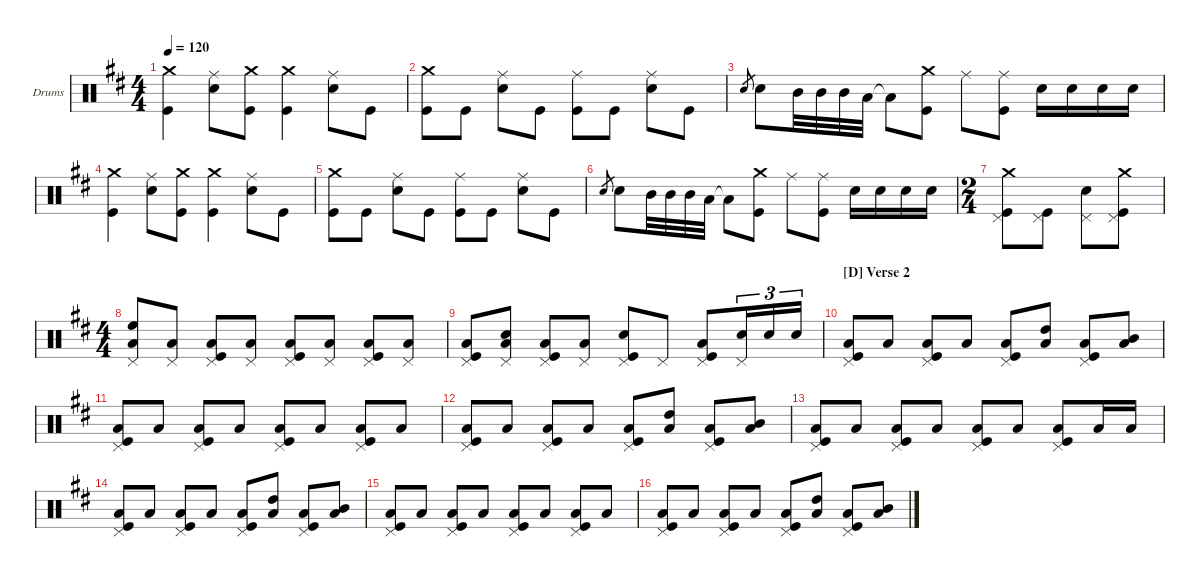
\hideDynamics
\bracketExtendMode nobrackets
\firstSystemTrackNameOrientation horizontal
\otherSystemsTrackNameOrientation horizontal
\track ("Drums" "Drums") {instrument percussion}
\staff {score}
\articulation defaults
\ts (4 4)
\tempo 120
\clef neutral
\ks bminor
("Crash medium (hit)" "Kick (hit)").4{dy f} ("Ride (middle)" "Snare (hit) 2").8 ("Crash medium (hit)" "Kick (hit)").8 ("Crash medium (hit)" "Kick (hit)").4 ("Ride (middle)" "Snare (hit) 2").8 "Kick (hit)".8 |
("Crash medium (hit)" "Kick (hit)").8 "Kick (hit)".8 ("Ride (middle)" "Snare (hit) 2").8 "Kick (hit)".8 ("Ride (middle)" "Kick (hit)").8 "Kick (hit)".8 ("Ride (middle)" "Snare (hit) 2").8 "Kick (hit)".8 |
"Snare (hit) 2".8{gr} "Snare (hit) 2".8 "Mid Tom (hit)".32 "Mid Tom (hit)".32 "Mid Tom (hit)".32 "Low Tom (hit)".32 "Low Tom (hit)"{t}.8 ("Kick (hit)" "Crash medium (hit)").8 "Ride (middle)".8 ("Ride (middle)" "Kick (hit)").8 "Snare (hit) 2".16 "Snare (hit) 2".16 "Snare (hit) 2".16 "Snare (hit) 2".16 |
("Crash medium (hit)" "Kick (hit)").4 ("Ride (middle)" "Snare (hit) 2").8 ("Crash medium (hit)" "Kick (hit)").8 ("Crash medium (hit)" "Kick (hit)").4 ("Ride (middle)" "Snare (hit) 2").8 "Kick (hit)".8 |
("Crash medium (hit)" "Kick (hit)").8 "Kick (hit)".8 ("Ride (middle)" "Snare (hit) 2").8 "Kick (hit)".8 ("Ride (middle)" "Kick (hit)").8 "Kick (hit)".8 ("Ride (middle)" "Snare (hit) 2").8 "Kick (hit)".8 |
"Snare (hit) 2".8{gr} "Snare (hit) 2".8 "Mid Tom (hit)".32 "Mid Tom (hit)".32 "Mid Tom (hit)".32 "Low Tom (hit)".32 "Low Tom (hit)"{t}.8 ("Kick (hit)" "Crash medium (hit)").8 "Ride (middle)".8 ("Ride (middle)" "Kick (hit)").8 "Snare (hit) 2".16 "Snare (hit) 2".16 "Snare (hit) 2".16 "Snare (hit) 2".16 |
\ts (2 4)
("Crash medium (hit)" "Pedal Hi-Hat (hit)" "Kick (hit)").8 ("Pedal Hi-Hat (hit)" "Kick (hit)").8 ("Pedal Hi-Hat (hit)" "Snare (hit) 2").8 ("Crash medium (hit)" "Pedal Hi-Hat (hit)" "Kick (hit)").8 |
\ts (4 4)
("Pedal Hi-Hat (hit)" "High Floor Tom (hit)" "Low Tom (hit)").8 ("Pedal Hi-Hat (hit)" "Low Tom (hit)").8 ("Pedal Hi-Hat (hit)" "Low Tom (hit)" "Kick (hit)").8 ("Pedal Hi-Hat (hit)" "Low Tom (hit)").8 ("Pedal Hi-Hat (hit)" "Low Tom (hit)" "Kick (hit)").8 ("Pedal Hi-Hat (hit)" "Low Tom (hit)").8 ("Pedal Hi-Hat (hit)" "Low Tom (hit)" "Kick (hit)").8 ("Pedal Hi-Hat (hit)" "Low Tom (hit)").8 |
("Pedal Hi-Hat (hit)" "Low Tom (hit)" "Kick (hit)").8 ("Pedal Hi-Hat (hit)" "Snare (hit) 2" "Low Tom (hit)").8 ("Pedal Hi-Hat (hit)" "Low Tom (hit)" "Kick (hit)").8 ("Pedal Hi-Hat (hit)" "Low Tom (hit)").8 ("Pedal Hi-Hat (hit)" "Snare (hit) 2" "Kick (hit)").8 "Pedal Hi-Hat (hit)".8 ("Pedal Hi-Hat (hit)" "Low Tom (hit)" "Kick (hit)").8{beam merge} ("Pedal Hi-Hat (hit)" "Snare (hit) 2").16{tu (3 2) beam merge} "Snare (hit) 2".16{tu (3 2) dy mp beam merge} "Snare (hit) 2".16{tu (3 2)} |
\section ("D" "Verse 2")
("Pedal Hi-Hat (hit)" "Kick (hit)" "Low Tom (hit)").8{dy mf} "Low Tom (hit)".8 ("Pedal Hi-Hat (hit)" "Kick (hit)" "Low Tom (hit)").8 "Low Tom (hit)".8 ("Pedal Hi-Hat (hit)" "Kick (hit)" "Low Tom (hit)").8 ("Low Tom (hit)" "High Tom (hit)").8 ("Pedal Hi-Hat (hit)" "Kick (hit)" "Low Tom (hit)").8 ("Low Tom (hit)" "Mid Tom (hit)").8 |
("Pedal Hi-Hat (hit)" "Kick (hit)" "Low Tom (hit)").8 "Low Tom (hit)".8 ("Pedal Hi-Hat (hit)" "Kick (hit)" "Low Tom (hit)").8 "Low Tom (hit)".8 ("Pedal Hi-Hat (hit)" "Kick (hit)" "Low Tom (hit)").8 "Low Tom (hit)".8 ("Pedal Hi-Hat (hit)" "Kick (hit)" "Low Tom (hit)").8 "Low Tom (hit)".8 |
("Pedal Hi-Hat (hit)" "Kick (hit)" "Low Tom (hit)").8 "Low Tom (hit)".8 ("Pedal Hi-Hat (hit)" "Kick (hit)" "Low Tom (hit)").8 "Low Tom (hit)".8 ("Pedal Hi-Hat (hit)" "Kick (hit)" "Low Tom (hit)").8 ("Low Tom (hit)" "High Tom (hit)").8 ("Pedal Hi-Hat (hit)" "Kick (hit)" "Low Tom (hit)").8 ("Low Tom (hit)" "Mid Tom (hit)").8 |
("Kick (hit)" "Pedal Hi-Hat (hit)" "Low Tom (hit)").8 "Low Tom (hit)".8 ("Kick (hit)" "Pedal Hi-Hat (hit)" "Low Tom (hit)").8 "Low Tom (hit)".8 ("Kick (hit)" "Pedal Hi-Hat (hit)" "Low Tom (hit)").8 "Low Tom (hit)".8 ("Kick (hit)" "Pedal Hi-Hat (hit)" "Low Tom (hit)").8 "Low Tom (hit)".16 "Low Tom (hit)".16 |
("Pedal Hi-Hat (hit)" "Kick (hit)" "Low Tom (hit)").8 "Low Tom (hit)".8 ("Pedal Hi-Hat (hit)" "Kick (hit)" "Low Tom (hit)").8 "Low Tom (hit)".8 ("Pedal Hi-Hat (hit)" "Kick (hit)" "Low Tom (hit)").8 ("Low Tom (hit)" "High Tom (hit)").8 ("Pedal Hi-Hat (hit)" "Kick (hit)" "Low Tom (hit)").8 ("Low Tom (hit)" "Mid Tom (hit)").8 |
("Pedal Hi-Hat (hit)" "Kick (hit)" "Low Tom (hit)").8 "Low Tom (hit)".8 ("Pedal Hi-Hat (hit)" "Kick (hit)" "Low Tom (hit)").8 "Low Tom (hit)".8 ("Pedal Hi-Hat (hit)" "Kick (hit)" "Low Tom (hit)").8 "Low Tom (hit)".8 ("Pedal Hi-Hat (hit)" "Kick (hit)" "Low Tom (hit)").8 "Low Tom (hit)".8 |
("Pedal Hi-Hat (hit)" "Kick (hit)" "Low Tom (hit)").8 "Low Tom (hit)".8 ("Pedal Hi-Hat (hit)" "Kick (hit)" "Low Tom (hit)").8 "Low Tom (hit)".8 ("Pedal Hi-Hat (hit)" "Kick (hit)" "Low Tom (hit)").8 ("Low Tom (hit)" "High Tom (hit)").8 ("Pedal Hi-Hat (hit)" "Kick (hit)" "Low Tom (hit)").8 ("Low Tom (hit)" "Mid Tom (hit)").8
